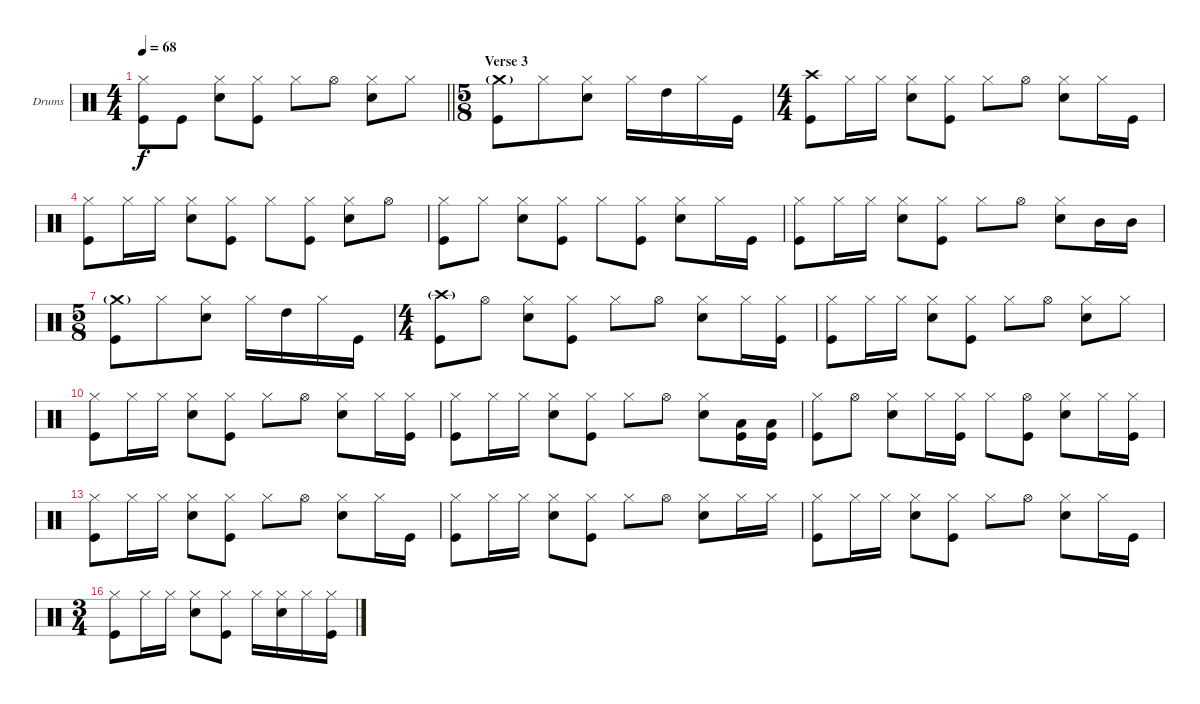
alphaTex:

\bracketExtendMode nobrackets
\firstSystemTrackNameOrientation horizontal
\otherSystemsTrackNameOrientation horizontal
\defaultBarNumberDisplay FirstOfSystem
\track ("Drumkit" "Drums") {instrument percussion}
\staff {score}
\articulation defaults
\ts (4 4)
\tempo 68
\clef neutral
\barLineRight lightlight
\ks c
("Hi-Hat (closed)" "Kick (hit)").8{dy f} "Kick (hit)".8 ("Hi-Hat (closed)" "Snare (hit) 2").8 ("Hi-Hat (closed)" "Kick (hit)").8 "Hi-Hat (closed)".8 "Hi-Hat (open)".8 ("Hi-Hat (closed)" "Snare (hit) 2").8 "Hi-Hat (closed)".8 |
\ts (5 8)
\section ("" "Verse 3")
("Crash medium (hit)"{g} "Kick (hit)").8 "Hi-Hat (closed)".8 ("Hi-Hat (closed)" "Snare (hit) 2").8 "Hi-Hat (closed)".16 "High Tom (hit)".16 "Hi-Hat (closed)".16 "Kick (hit)".16 |
\ts (4 4)
("Kick (hit)" "Crash high (hit)").8 "Hi-Hat (closed)".16 "Hi-Hat (closed)".16 ("Hi-Hat (closed)" "Snare (hit) 2").8 ("Hi-Hat (closed)" "Kick (hit)").8 "Hi-Hat (closed)".8 "Hi-Hat (open)".8 ("Hi-Hat (closed)" "Snare (hit) 2").8 "Hi-Hat (closed)".16 "Kick (hit)".16 |
("Hi-Hat (closed)" "Kick (hit)").8 "Hi-Hat (closed)".16 "Hi-Hat (closed)".16 ("Hi-Hat (closed)" "Snare (hit) 2").8 ("Hi-Hat (closed)" "Kick (hit)").8 "Hi-Hat (closed)".8 ("Hi-Hat (closed)" "Kick (hit)").8 ("Hi-Hat (closed)" "Snare (hit) 2").8 "Hi-Hat (open)".8 |
("Hi-Hat (closed)" "Kick (hit)").8 "Hi-Hat (closed)".8 ("Hi-Hat (closed)" "Snare (hit) 2").8 ("Hi-Hat (closed)" "Kick (hit)").8 "Hi-Hat (closed)".8 ("Hi-Hat (closed)" "Kick (hit)").8 ("Hi-Hat (closed)" "Snare (hit) 2").8 "Hi-Hat (closed)".16 "Kick (hit)".16 |
("Hi-Hat (closed)" "Kick (hit)").8 "Hi-Hat (closed)".16 "Hi-Hat (closed)".16 ("Hi-Hat (closed)" "Snare (hit) 2").8 ("Hi-Hat (closed)" "Kick (hit)").8 "Hi-Hat (closed)".8 "Hi-Hat (open)".8 ("Hi-Hat (closed)" "Snare (hit) 2").8 "Mid Tom (hit)".16 "Mid Tom (hit)".16 |
\ts (5 8)
("Crash medium (hit)"{g} "Kick (hit)").8 "Hi-Hat (closed)".8 ("Hi-Hat (closed)" "Snare (hit) 2").8 "Hi-Hat (closed)".16 "High Tom (hit)".16 "Hi-Hat (closed)".16 "Kick (hit)".16 |
\ts (4 4)
("Crash high (hit)"{g} "Kick (hit)").8 "Hi-Hat (open)".8 ("Hi-Hat (closed)" "Snare (hit) 2").8 ("Hi-Hat (closed)" "Kick (hit)").8 "Hi-Hat (closed)".8 "Hi-Hat (open)".8 ("Hi-Hat (closed)" "Snare (hit) 2").8 "Hi-Hat (closed)".16 ("Kick (hit)" "Hi-Hat (closed)").16 |
("Hi-Hat (closed)" "Kick (hit)").8 "Hi-Hat (closed)".16 "Hi-Hat (closed)".16 ("Hi-Hat (closed)" "Snare (hit) 2").8 ("Hi-Hat (closed)" "Kick (hit)").8 "Hi-Hat (closed)".8 "Hi-Hat (open)".8 ("Hi-Hat (closed)" "Snare (hit) 2").8 "Hi-Hat (closed)".8 |
("Hi-Hat (closed)" "Kick (hit)").8 "Hi-Hat (closed)".16 "Hi-Hat (closed)".16 ("Hi-Hat (closed)" "Snare (hit) 2").8 ("Hi-Hat (closed)" "Kick (hit)").8 "Hi-Hat (closed)".8 "Hi-Hat (open)".8 ("Hi-Hat (closed)" "Snare (hit) 2").8 "Hi-Hat (closed)".16 ("Kick (hit)" "Hi-Hat (closed)").16 |
("Hi-Hat (closed)" "Kick (hit)").8 "Hi-Hat (closed)".16 "Hi-Hat (closed)".16 ("Hi-Hat (closed)" "Snare (hit) 2").8 ("Hi-Hat (closed)" "Kick (hit)").8 "Hi-Hat (closed)".8 "Hi-Hat (open)".8 ("Hi-Hat (closed)" "Snare (hit) 2").8 ("Low Tom (hit)" "Kick (hit)").16 ("Low Tom (hit)" "Kick (hit)").16 |
("Hi-Hat (closed)" "Kick (hit)").8 "Hi-Hat (open)".8 ("Hi-Hat (closed)" "Snare (hit) 2").8 "Hi-Hat (closed)".16 ("Kick (hit)" "Hi-Hat (closed)").16 "Hi-Hat (closed)".8 ("Hi-Hat (open)" "Kick (hit)").8 ("Hi-Hat (closed)" "Snare (hit) 2").8 "Hi-Hat (closed)".16 ("Kick (hit)" "Hi-Hat (closed)").16 |
("Hi-Hat (closed)" "Kick (hit)").8 "Hi-Hat (closed)".16 "Hi-Hat (closed)".16 ("Hi-Hat (closed)" "Snare (hit) 2").8 ("Hi-Hat (closed)" "Kick (hit)").8 "Hi-Hat (closed)".8 "Hi-Hat (open)".8 ("Hi-Hat (closed)" "Snare (hit) 2").8 "Hi-Hat (closed)".16 "Kick (hit)".16 |
("Hi-Hat (closed)" "Kick (hit)").8 "Hi-Hat (closed)".16 "Hi-Hat (closed)".16 ("Hi-Hat (closed)" "Snare (hit) 2").8 ("Hi-Hat (closed)" "Kick (hit)").8 "Hi-Hat (closed)".8 "Hi-Hat (open)".8 ("Hi-Hat (closed)" "Snare (hit) 2").8 "Hi-Hat (closed)".16 "Hi-Hat (closed)".16 |
("Hi-Hat (closed)" "Kick (hit)").8 "Hi-Hat (closed)".16 "Hi-Hat (closed)".16 ("Hi-Hat (closed)" "Snare (hit) 2").8 ("Hi-Hat (closed)" "Kick (hit)").8 "Hi-Hat (closed)".8 "Hi-Hat (open)".8 ("Hi-Hat (closed)" "Snare (hit) 2").8 "Hi-Hat (closed)".16 "Kick (hit)".16 |
\ts (3 4)
("Hi-Hat (closed)" "Kick (hit)").8 "Hi-Hat (closed)".16 "Hi-Hat (closed)".16 ("Hi-Hat (closed)" "Snare (hit) 2").8 ("Hi-Hat (closed)" "Kick (hit)").8 "Hi-Hat (closed)".16 ("Hi-Hat (closed)" "Snare (hit) 2").16 "Hi-Hat (closed)".16 ("Hi-Hat (closed)" "Kick (hit)").16
